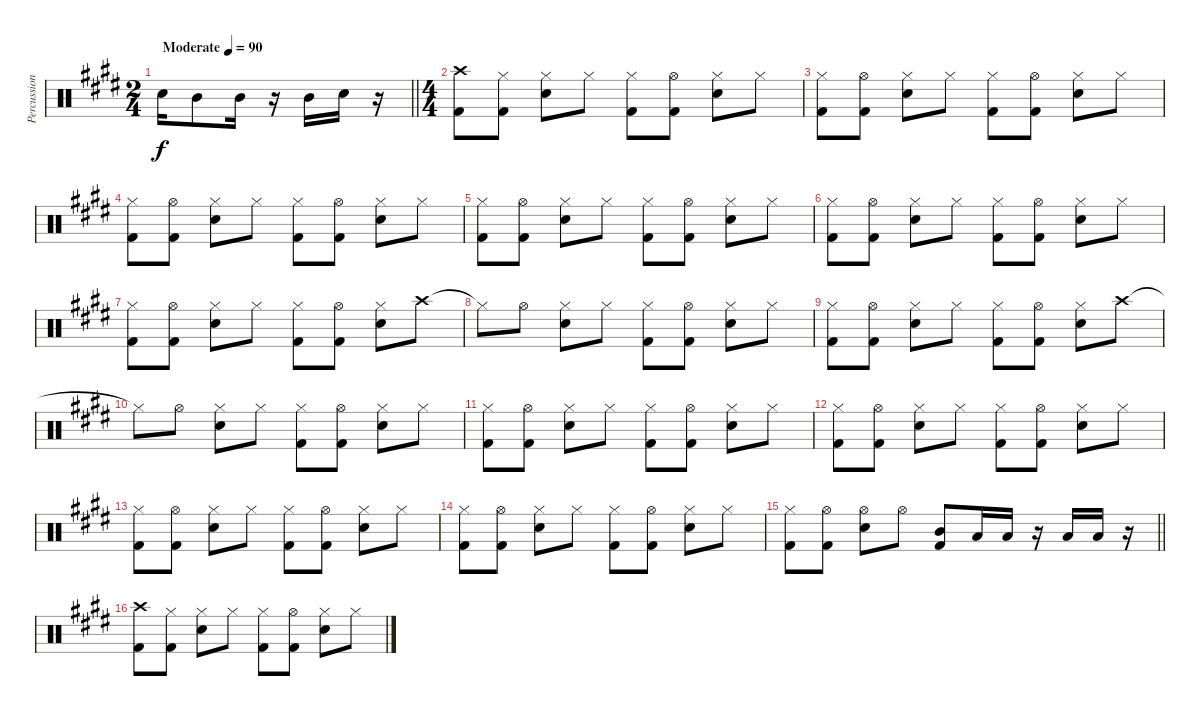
\track ("Percussion" "Percussion") {instrument percussion}
\staff {score}
\articulation defaults
\ts (2 4)
\tempo (90 "Moderate")
\clef neutral
\barLineRight lightlight
\ks e "Snare (hit) 2".16{dy f} "Mid Tom (hit)".8 "Mid Tom (hit)".16
r.16 "Mid Tom (hit)".16 "Snare (hit) 2".16 r.16 |
\ts (4 4)
("Crash high (hit)" "Kick (hit) 2").8 ("Hi-Hat (closed)" "Kick (hit) 2").8 ("Hi-Hat (closed)" "Snare (hit) 2").8 "Hi-Hat (closed)".8 ("Hi-Hat (closed)" "Kick (hit) 2").8 ("Hi-Hat (open)" "Kick (hit) 2").8 ("Hi-Hat (closed)" "Snare (hit) 2").8 "Hi-Hat (closed)".8 |
("Hi-Hat (closed)" "Kick (hit) 2").8 ("Hi-Hat (open)" "Kick (hit) 2").8 ("Hi-Hat (closed)" "Snare (hit) 2").8 "Hi-Hat (closed)".8 ("Hi-Hat (closed)" "Kick (hit) 2").8 ("Hi-Hat (open)" "Kick (hit) 2").8 ("Hi-Hat (closed)" "Snare (hit) 2").8 "Hi-Hat (closed)".8 |
("Hi-Hat (closed)" "Kick (hit) 2").8 ("Hi-Hat (open)" "Kick (hit) 2").8 ("Hi-Hat (closed)" "Snare (hit) 2").8 "Hi-Hat (closed)".8 ("Hi-Hat (closed)" "Kick (hit) 2").8 ("Hi-Hat (open)" "Kick (hit) 2").8 ("Hi-Hat (closed)" "Snare (hit) 2").8 "Hi-Hat (closed)".8 |
("Hi-Hat (closed)" "Kick (hit) 2").8 ("Hi-Hat (open)" "Kick (hit) 2").8 ("Hi-Hat (closed)" "Snare (hit) 2").8 "Hi-Hat (closed)".8 ("Hi-Hat (closed)" "Kick (hit) 2").8 ("Hi-Hat (open)" "Kick (hit) 2").8 ("Hi-Hat (closed)" "Snare (hit) 2").8 "Hi-Hat (closed)".8 |
("Hi-Hat (closed)" "Kick (hit) 2").8 ("Hi-Hat (open)" "Kick (hit) 2").8 ("Hi-Hat (closed)" "Snare (hit) 2").8 "Hi-Hat (closed)".8 ("Hi-Hat (closed)" "Kick (hit) 2").8 ("Hi-Hat (open)" "Kick (hit) 2").8 ("Hi-Hat (closed)" "Snare (hit) 2").8 "Hi-Hat (closed)".8 |
("Hi-Hat (closed)" "Kick (hit) 2").8 ("Hi-Hat (open)" "Kick (hit) 2").8 ("Hi-Hat (closed)" "Snare (hit) 2").8 "Hi-Hat (closed)".8 ("Hi-Hat (closed)" "Kick (hit) 2").8 ("Hi-Hat (open)" "Kick (hit) 2").8 ("Hi-Hat (closed)" "Snare (hit) 2").8 "Crash high (hit)".8 |
"Hi-Hat (closed)"{t}.8 "Hi-Hat (open)".8 ("Hi-Hat (closed)" "Snare (hit) 2").8 "Hi-Hat (closed)".8 ("Hi-Hat (closed)" "Kick (hit) 2").8 ("Hi-Hat (open)" "Kick (hit) 2").8 ("Hi-Hat (closed)" "Snare (hit) 2").8 "Hi-Hat (closed)".8 |
("Hi-Hat (closed)" "Kick (hit) 2").8 ("Hi-Hat (open)" "Kick (hit) 2").8 ("Hi-Hat (closed)" "Snare (hit) 2").8 "Hi-Hat (closed)".8 ("Hi-Hat (closed)" "Kick (hit) 2").8 ("Hi-Hat (open)" "Kick (hit) 2").8 ("Hi-Hat (closed)" "Snare (hit) 2").8 "Crash high (hit)".8 |
"Hi-Hat (closed)"{t}.8 "Hi-Hat (open)".8 ("Hi-Hat (closed)" "Snare (hit) 2").8 "Hi-Hat (closed)".8 ("Hi-Hat (closed)" "Kick (hit) 2").8 ("Hi-Hat (open)" "Kick (hit) 2").8 ("Hi-Hat (closed)" "Snare (hit) 2").8 "Hi-Hat (closed)".8 |
("Hi-Hat (closed)" "Kick (hit) 2").8 ("Hi-Hat (open)" "Kick (hit) 2").8 ("Hi-Hat (closed)" "Snare (hit) 2").8 "Hi-Hat (closed)".8 ("Hi-Hat (closed)" "Kick (hit) 2").8 ("Hi-Hat (open)" "Kick (hit) 2").8 ("Hi-Hat (closed)" "Snare (hit) 2").8 "Hi-Hat (closed)".8 |
("Hi-Hat (closed)" "Kick (hit) 2").8 ("Hi-Hat (open)" "Kick (hit) 2").8 ("Hi-Hat (closed)" "Snare (hit) 2").8 "Hi-Hat (closed)".8 ("Hi-Hat (closed)" "Kick (hit) 2").8 ("Hi-Hat (open)" "Kick (hit) 2").8 ("Hi-Hat (closed)" "Snare (hit) 2").8 "Hi-Hat (closed)".8 |
("Hi-Hat (closed)" "Kick (hit) 2").8 ("Hi-Hat (open)" "Kick (hit) 2").8 ("Hi-Hat (closed)" "Snare (hit) 2").8 "Hi-Hat (closed)".8 ("Hi-Hat (closed)" "Kick (hit) 2").8 ("Hi-Hat (open)" "Kick (hit) 2").8 ("Hi-Hat (closed)" "Snare (hit) 2").8 "Hi-Hat (closed)".8 |
("Hi-Hat (closed)" "Kick (hit) 2").8 ("Hi-Hat (open)" "Kick (hit) 2").8 ("Hi-Hat (closed)" "Snare (hit) 2").8 "Hi-Hat (closed)".8 ("Hi-Hat (closed)" "Kick (hit) 2").8 ("Hi-Hat (open)" "Kick (hit) 2").8 ("Hi-Hat (closed)" "Snare (hit) 2").8 "Hi-Hat (closed)".8 |
\barLineRight lightlight
("Hi-Hat (closed)" "Kick (hit) 2").8 ("Hi-Hat (open)" "Kick (hit) 2").8 ("Hi-Hat (open)" "Snare (hit) 2").8 "Hi-Hat (open)".8 ("Mid Tom (hit)" "Kick (hit) 2").8 "Low Floor Tom (hit)".16 "Low Floor Tom (hit)".16 r.16 "Low Floor Tom (hit)".16 "Low Floor Tom (hit)".16 r.16 |
("Crash high (hit)" "Kick (hit) 2").8 ("Hi-Hat (closed)" "Kick (hit) 2").8 ("Hi-Hat (closed)" "Snare (hit) 2").8 "Hi-Hat (closed)".8 ("Hi-Hat (closed)" "Kick (hit) 2").8 ("Hi-Hat (open)" "Kick (hit) 2").8 ("Hi-Hat (closed)" "Snare (hit) 2").8 "Hi-Hat (closed)".8
